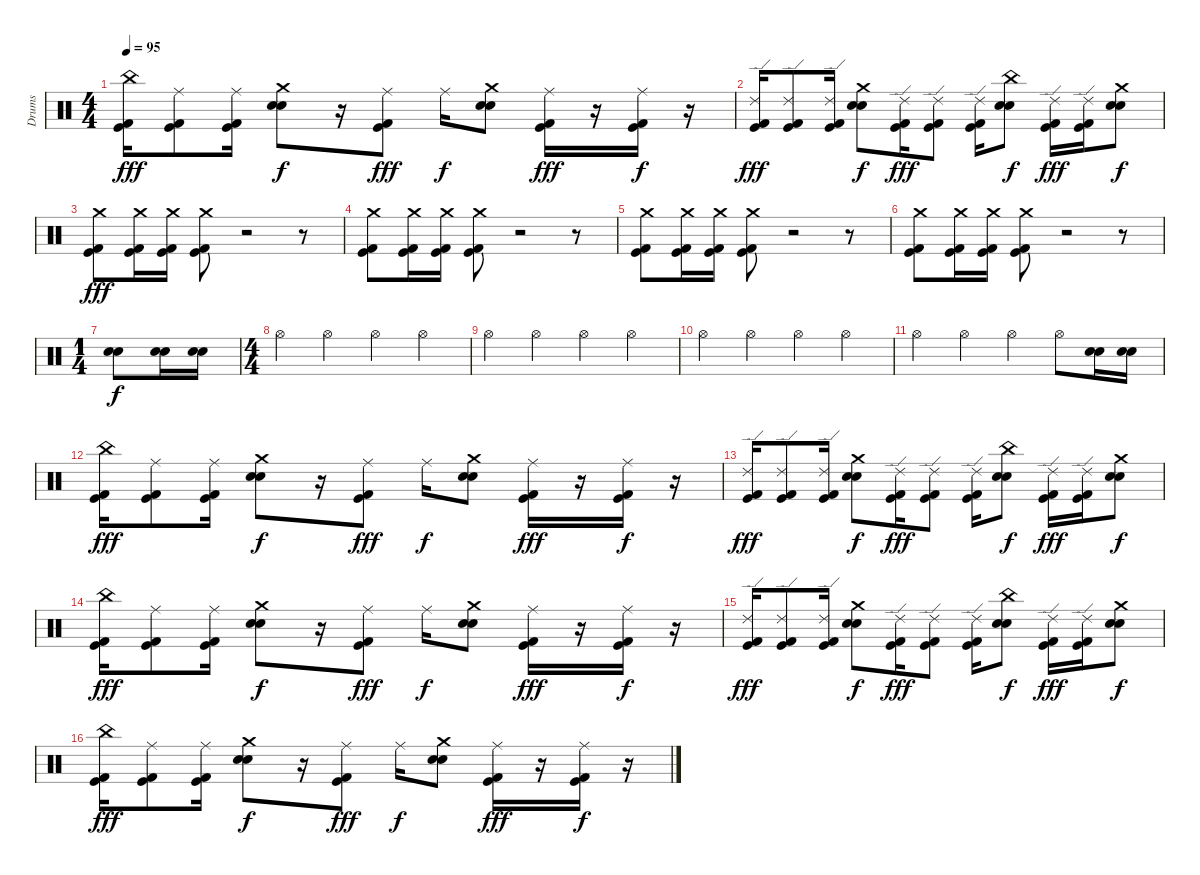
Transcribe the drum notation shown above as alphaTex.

\track ("Drums" "Drums") {instrument percussion}
\staff {score}
\articulation defaults
\ts (4 4)
\tempo 95
\clef neutral
\ks c
("China (hit)" "Kick (hit)" "Kick (hit) 2").16{dy fff} ("Ride (middle)" "Kick (hit)" "Kick (hit) 2").8 ("Ride (middle)" "Kick (hit)" "Kick (hit) 2").16 ("Crash medium (hit)" "Snare (hit) 2" "Snare (hit) 2").8{dy f} r.16 ("Ride (middle)" "Kick (hit)" "Kick (hit) 2").8{dy fff} "Ride (middle)".16{dy f} ("Crash medium (hit)" "Snare (hit) 2" "Snare (hit) 2").8 ("Ride (middle)" "Kick (hit)" "Kick (hit) 2").16{dy fff} r.16 ("Ride (middle)" "Kick (hit)" "Kick (hit) 2").16{dy f} r.16 |
("Ride (edge) 2" "Kick (hit)" "Kick (hit) 2").16{dy fff} ("Ride (edge) 2" "Kick (hit)" "Kick (hit) 2").8 ("Ride (edge) 2" "Kick (hit)" "Kick (hit) 2").16 ("Crash medium (hit)" "Snare (hit) 2" "Snare (hit) 2").8{dy f} ("Ride (edge) 2" "Kick (hit)" "Kick (hit) 2").16{dy fff} ("Ride (edge) 2" "Kick (hit)" "Kick (hit) 2").8 ("Ride (edge) 2" "Kick (hit)" "Kick (hit) 2").16 ("China (hit)" "Snare (hit) 2" "Snare (hit) 2").8{dy f} ("Ride (edge) 2" "Kick (hit)" "Kick (hit) 2").16{dy fff} ("Ride (edge) 2" "Kick (hit)" "Kick (hit) 2").16 ("Crash medium (hit)" "Snare (hit) 2" "Snare (hit) 2").8{dy f} |
("Crash medium (hit)" "Kick (hit)" "Kick (hit) 2").8{dy fff} ("Crash medium (hit)" "Kick (hit)" "Kick (hit) 2").16 ("Crash medium (hit)" "Kick (hit)" "Kick (hit) 2").16 ("Crash medium (hit)" "Kick (hit)" "Kick (hit) 2").8 r.2 r.8 |
("Crash medium (hit)" "Kick (hit)" "Kick (hit) 2").8 ("Crash medium (hit)" "Kick (hit)" "Kick (hit) 2").16 ("Crash medium (hit)" "Kick (hit)" "Kick (hit) 2").16 ("Crash medium (hit)" "Kick (hit)" "Kick (hit) 2").8 r.2 r.8 |
("Crash medium (hit)" "Kick (hit)" "Kick (hit) 2").8 ("Crash medium (hit)" "Kick (hit)" "Kick (hit) 2").16 ("Crash medium (hit)" "Kick (hit)" "Kick (hit) 2").16 ("Crash medium (hit)" "Kick (hit)" "Kick (hit) 2").8 r.2 r.8 |
("Crash medium (hit)" "Kick (hit)" "Kick (hit) 2").8 ("Crash medium (hit)" "Kick (hit)" "Kick (hit) 2").16 ("Crash medium (hit)" "Kick (hit)" "Kick (hit) 2").16 ("Crash medium (hit)" "Kick (hit)" "Kick (hit) 2").8 r.2 r.8 |
\ts (1 4)
("Snare (hit) 2" "Snare (hit) 2").8{dy f} ("Snare (hit) 2" "Snare (hit) 2").16 ("Snare (hit) 2" "Snare (hit) 2").16 |
\ts (4 4)
"Hi-Hat (open)".4 "Hi-Hat (open)".4 "Hi-Hat (open)".4 "Hi-Hat (open)".4 |
"Hi-Hat (open)".4 "Hi-Hat (open)".4 "Hi-Hat (open)".4 "Hi-Hat (open)".4 |
"Hi-Hat (open)".4 "Hi-Hat (open)".4 "Hi-Hat (open)".4 "Hi-Hat (open)".4 |
"Hi-Hat (open)".4 "Hi-Hat (open)".4 "Hi-Hat (open)".4 "Hi-Hat (open)".8 ("Snare (hit) 2" "Snare (hit) 2").16 ("Snare (hit) 2" "Snare (hit) 2").16 |
("China (hit)" "Kick (hit)" "Kick (hit) 2").16{dy fff} ("Ride (middle)" "Kick (hit)" "Kick (hit) 2").8 ("Ride (middle)" "Kick (hit)" "Kick (hit) 2").16 ("Crash medium (hit)" "Snare (hit) 2" "Snare (hit) 2").8{dy f} r.16 ("Ride (middle)" "Kick (hit)" "Kick (hit) 2").8{dy fff} "Ride (middle)".16{dy f} ("Crash medium (hit)" "Snare (hit) 2" "Snare (hit) 2").8 ("Ride (middle)" "Kick (hit)" "Kick (hit) 2").16{dy fff} r.16 ("Ride (middle)" "Kick (hit)" "Kick (hit) 2").16{dy f} r.16 |
("Ride (edge) 2" "Kick (hit)" "Kick (hit) 2").16{dy fff} ("Ride (edge) 2" "Kick (hit)" "Kick (hit) 2").8 ("Ride (edge) 2" "Kick (hit)" "Kick (hit) 2").16 ("Crash medium (hit)" "Snare (hit) 2" "Snare (hit) 2").8{dy f} ("Ride (edge) 2" "Kick (hit)" "Kick (hit) 2").16{dy fff} ("Ride (edge) 2" "Kick (hit)" "Kick (hit) 2").8 ("Ride (edge) 2" "Kick (hit)" "Kick (hit) 2").16 ("China (hit)" "Snare (hit) 2" "Snare (hit) 2").8{dy f} ("Ride (edge) 2" "Kick (hit)" "Kick (hit) 2").16{dy fff} ("Ride (edge) 2" "Kick (hit)" "Kick (hit) 2").16 ("Crash medium (hit)" "Snare (hit) 2" "Snare (hit) 2").8{dy f} |
("China (hit)" "Kick (hit)" "Kick (hit) 2").16{dy fff} ("Ride (middle)" "Kick (hit)" "Kick (hit) 2").8 ("Ride (middle)" "Kick (hit)" "Kick (hit) 2").16 ("Crash medium (hit)" "Snare (hit) 2" "Snare (hit) 2").8{dy f} r.16 ("Ride (middle)" "Kick (hit)" "Kick (hit) 2").8{dy fff} "Ride (middle)".16{dy f} ("Crash medium (hit)" "Snare (hit) 2" "Snare (hit) 2").8 ("Ride (middle)" "Kick (hit)" "Kick (hit) 2").16{dy fff} r.16 ("Ride (middle)" "Kick (hit)" "Kick (hit) 2").16{dy f} r.16 |
("Ride (edge) 2" "Kick (hit)" "Kick (hit) 2").16{dy fff} ("Ride (edge) 2" "Kick (hit)" "Kick (hit) 2").8 ("Ride (edge) 2" "Kick (hit)" "Kick (hit) 2").16 ("Crash medium (hit)" "Snare (hit) 2" "Snare (hit) 2").8{dy f} ("Ride (edge) 2" "Kick (hit)" "Kick (hit) 2").16{dy fff} ("Ride (edge) 2" "Kick (hit)" "Kick (hit) 2").8 ("Ride (edge) 2" "Kick (hit)" "Kick (hit) 2").16 ("China (hit)" "Snare (hit) 2" "Snare (hit) 2").8{dy f} ("Ride (edge) 2" "Kick (hit)" "Kick (hit) 2").16{dy fff} ("Ride (edge) 2" "Kick (hit)" "Kick (hit) 2").16 ("Crash medium (hit)" "Snare (hit) 2" "Snare (hit) 2").8{dy f} |
("China (hit)" "Kick (hit)" "Kick (hit) 2").16{dy fff} ("Ride (middle)" "Kick (hit)" "Kick (hit) 2").8 ("Ride (middle)" "Kick (hit)" "Kick (hit) 2").16 ("Crash medium (hit)" "Snare (hit) 2" "Snare (hit) 2").8{dy f} r.16 ("Ride (middle)" "Kick (hit)" "Kick (hit) 2").8{dy fff} "Ride (middle)".16{dy f} ("Crash medium (hit)" "Snare (hit) 2" "Snare (hit) 2").8 ("Ride (middle)" "Kick (hit)" "Kick (hit) 2").16{dy fff} r.16 ("Ride (middle)" "Kick (hit)" "Kick (hit) 2").16{dy f} r.16
